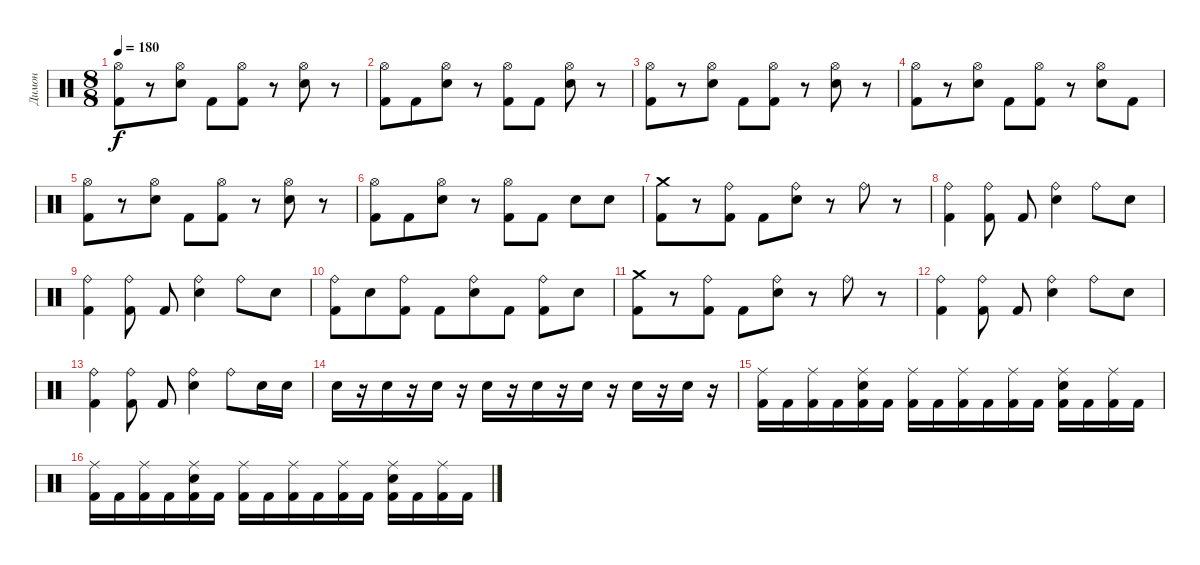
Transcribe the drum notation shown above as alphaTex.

\track ("Димон" "Димон") {instrument percussion}
\staff {score}
\articulation defaults
\ts (8 8)
\tempo 180
\clef neutral
\ks c
("Kick (hit) 2" "Hi-Hat (open)").8{dy f} r.8 ("Electric Snare (hit)" "Hi-Hat (open)").8 "Kick (hit) 2".8 ("Kick (hit) 2" "Hi-Hat (open)").8 r.8 ("Electric Snare (hit)" "Hi-Hat (open)").8 r.8 |
("Kick (hit) 2" "Hi-Hat (open)").8 "Kick (hit) 2".8 ("Electric Snare (hit)" "Hi-Hat (open)").8 r.8 ("Kick (hit) 2" "Hi-Hat (open)").8 "Kick (hit) 2".8 ("Electric Snare (hit)" "Hi-Hat (open)").8 r.8 |
("Kick (hit) 2" "Hi-Hat (open)").8 r.8 ("Electric Snare (hit)" "Hi-Hat (open)").8 "Kick (hit) 2".8 ("Kick (hit) 2" "Hi-Hat (open)").8 r.8 ("Electric Snare (hit)" "Hi-Hat (open)").8 r.8 |
("Kick (hit) 2" "Hi-Hat (open)").8 r.8 ("Electric Snare (hit)" "Hi-Hat (open)").8 "Kick (hit) 2".8 ("Kick (hit) 2" "Hi-Hat (open)").8 r.8 ("Electric Snare (hit)" "Hi-Hat (open)").8 "Kick (hit) 2".8 |
("Kick (hit) 2" "Hi-Hat (open)").8 r.8 ("Electric Snare (hit)" "Hi-Hat (open)").8 "Kick (hit) 2".8 ("Kick (hit) 2" "Hi-Hat (open)").8 r.8 ("Electric Snare (hit)" "Hi-Hat (open)").8 r.8 |
("Kick (hit) 2" "Hi-Hat (open)").8 "Kick (hit) 2".8 ("Electric Snare (hit)" "Hi-Hat (open)").8 r.8 ("Kick (hit) 2" "Hi-Hat (open)").8 "Kick (hit) 2".8 "Electric Snare (hit)".8 "Electric Snare (hit)".8 |
("Crash medium (hit)" "Kick (hit) 2").8 r.8 ("Ride (bell)" "Kick (hit) 2").8 "Kick (hit) 2".8 ("Ride (bell)" "Electric Snare (hit)").8 r.8 "Ride (bell)".8 r.8 |
("Ride (bell)" "Kick (hit) 2").4 ("Ride (bell)" "Kick (hit) 2").8 "Kick (hit) 2".8 ("Ride (bell)" "Electric Snare (hit)").4 "Ride (bell)".8 "Electric Snare (hit)".8 |
("Ride (bell)" "Kick (hit) 2").4 ("Ride (bell)" "Kick (hit) 2").8 "Kick (hit) 2".8 ("Ride (bell)" "Electric Snare (hit)").4 "Ride (bell)".8 "Electric Snare (hit)".8 |
("Ride (bell)" "Kick (hit) 2").8 "Electric Snare (hit)".8 ("Ride (bell)" "Kick (hit) 2").8 "Kick (hit) 2".8 ("Ride (bell)" "Electric Snare (hit)").8 "Kick (hit) 2".8 ("Ride (bell)" "Kick (hit) 2").8 "Electric Snare (hit)".8 |
("Crash medium (hit)" "Kick (hit) 2").8 r.8 ("Ride (bell)" "Kick (hit) 2").8 "Kick (hit) 2".8 ("Ride (bell)" "Electric Snare (hit)").8 r.8 "Ride (bell)".8 r.8 |
("Ride (bell)" "Kick (hit) 2").4 ("Ride (bell)" "Kick (hit) 2").8 "Kick (hit) 2".8 ("Ride (bell)" "Electric Snare (hit)").4 "Ride (bell)".8 "Electric Snare (hit)".8 |
("Ride (bell)" "Kick (hit) 2").4 ("Ride (bell)" "Kick (hit) 2").8 "Kick (hit) 2".8 ("Ride (bell)" "Electric Snare (hit)").4 "Ride (bell)".8 "Electric Snare (hit)".16 "Electric Snare (hit)".16 |
"Electric Snare (hit)".16 r.16 "Electric Snare (hit)".16 r.16 "Electric Snare (hit)".16 r.16 "Electric Snare (hit)".16 r.16 "Electric Snare (hit)".16 r.16 "Electric Snare (hit)".16 r.16 "Electric Snare (hit)".16 r.16 "Electric Snare (hit)".16 r.16 |
("Ride (middle)" "Kick (hit) 2").16 "Kick (hit) 2".16 ("Ride (middle)" "Kick (hit) 2").16 "Kick (hit) 2".16 ("Electric Snare (hit)" "Kick (hit) 2" "Ride (middle)").16 "Kick (hit) 2".16 ("Kick (hit) 2" "Ride (middle)").16 "Kick (hit) 2".16 ("Kick (hit) 2" "Ride (middle)").16 "Kick (hit) 2".16 ("Kick (hit) 2" "Ride (middle)").16 "Kick (hit) 2".16 ("Electric Snare (hit)" "Kick (hit) 2" "Ride (middle)").16 "Kick (hit) 2".16 ("Kick (hit) 2" "Ride (middle)").16 "Kick (hit) 2".16 |
("Ride (middle)" "Kick (hit) 2").16 "Kick (hit) 2".16 ("Ride (middle)" "Kick (hit) 2").16 "Kick (hit) 2".16 ("Electric Snare (hit)" "Kick (hit) 2" "Ride (middle)").16 "Kick (hit) 2".16 ("Kick (hit) 2" "Ride (middle)").16 "Kick (hit) 2".16 ("Kick (hit) 2" "Ride (middle)").16 "Kick (hit) 2".16 ("Kick (hit) 2" "Ride (middle)").16 "Kick (hit) 2".16 ("Electric Snare (hit)" "Kick (hit) 2" "Ride (middle)").16 "Kick (hit) 2".16 ("Kick (hit) 2" "Ride (middle)").16 "Kick (hit) 2".16
